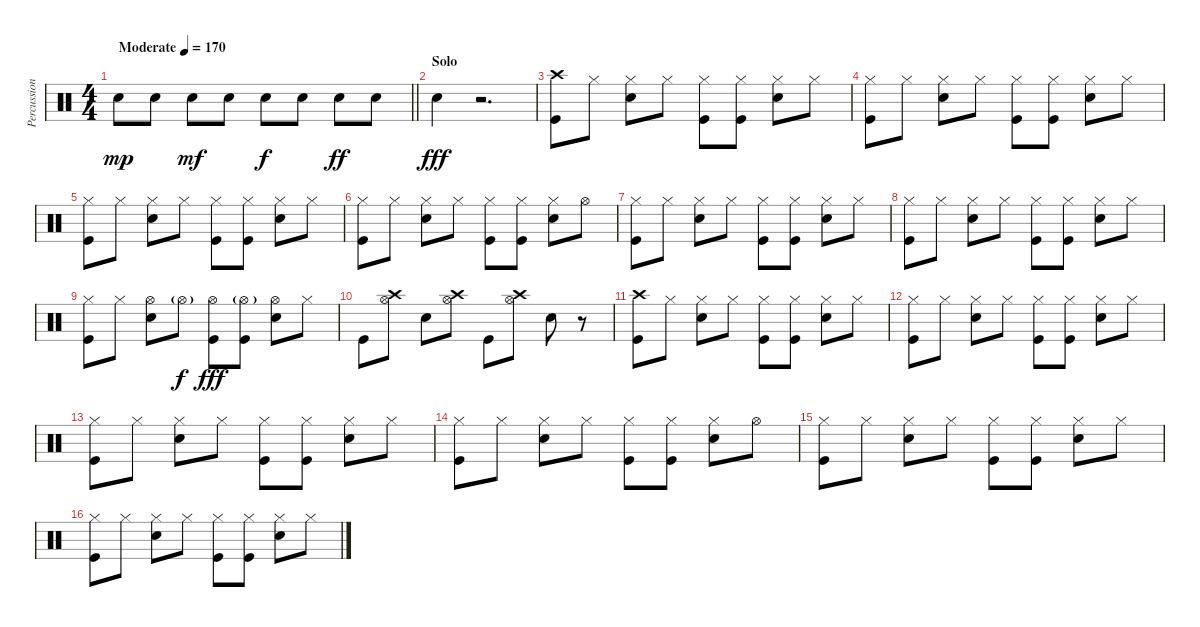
\track ("Percussion" "Percussion") {instrument percussion}
\staff {score}
\articulation defaults
\ts (4 4)
\tempo (170 "Moderate")
\clef neutral
\barLineRight lightlight
\ks c "Snare (hit) 2".8{dy mp} "Snare (hit) 2".8 "Snare (hit) 2".8{dy mf} "Snare (hit) 2".8 "Snare (hit) 2".8{dy f} "Snare (hit) 2".8 "Snare (hit) 2".8{dy ff} "Snare (hit) 2".8
|
\section ("" "Solo")
"Snare (hit) 2".4{dy fff} r.2{d} |
("Crash high (hit)" "Kick (hit)").8 "Hi-Hat (closed)".8 ("Hi-Hat (closed)" "Snare (hit) 2").8 "Hi-Hat (closed)".8 ("Hi-Hat (closed)" "Kick (hit)").8 ("Hi-Hat (closed)" "Kick (hit)").8 ("Hi-Hat (closed)" "Snare (hit) 2").8 "Hi-Hat (closed)".8 |
("Hi-Hat (closed)" "Kick (hit)").8 "Hi-Hat (closed)".8 ("Hi-Hat (closed)" "Snare (hit) 2").8 "Hi-Hat (closed)".8 ("Hi-Hat (closed)" "Kick (hit)").8 ("Hi-Hat (closed)" "Kick (hit)").8 ("Hi-Hat (closed)" "Snare (hit) 2").8 "Hi-Hat (closed)".8 |
("Hi-Hat (closed)" "Kick (hit)").8 "Hi-Hat (closed)".8 ("Hi-Hat (closed)" "Snare (hit) 2").8 "Hi-Hat (closed)".8 ("Hi-Hat (closed)" "Kick (hit)").8 ("Hi-Hat (closed)" "Kick (hit)").8 ("Hi-Hat (closed)" "Snare (hit) 2").8 "Hi-Hat (closed)".8 |
("Hi-Hat (closed)" "Kick (hit)").8 "Hi-Hat (closed)".8 ("Hi-Hat (closed)" "Snare (hit) 2").8 "Hi-Hat (closed)".8 ("Hi-Hat (closed)" "Kick (hit)").8 ("Hi-Hat (closed)" "Kick (hit)").8 ("Hi-Hat (closed)" "Snare (hit) 2").8 "Hi-Hat (open)".8 |
("Hi-Hat (closed)" "Kick (hit)").8 "Hi-Hat (closed)".8 ("Hi-Hat (closed)" "Snare (hit) 2").8 "Hi-Hat (closed)".8 ("Hi-Hat (closed)" "Kick (hit)").8 ("Hi-Hat (closed)" "Kick (hit)").8 ("Hi-Hat (closed)" "Snare (hit) 2").8 "Hi-Hat (closed)".8 |
("Hi-Hat (closed)" "Kick (hit)").8 "Hi-Hat (closed)".8 ("Hi-Hat (closed)" "Snare (hit) 2").8 "Hi-Hat (closed)".8 ("Hi-Hat (closed)" "Kick (hit)").8 ("Hi-Hat (closed)" "Kick (hit)").8 ("Hi-Hat (closed)" "Snare (hit) 2").8 "Hi-Hat (closed)".8 |
("Hi-Hat (closed)" "Kick (hit)").8 "Hi-Hat (closed)".8 ("Hi-Hat (open)" "Snare (hit) 2").8 "Hi-Hat (open)"{g}.8{dy f} ("Hi-Hat (open)" "Kick (hit)").8{dy fff} ("Hi-Hat (open)"{g} "Kick (hit)").8 ("Hi-Hat (open)" "Snare (hit) 2").8 "Hi-Hat (closed)".8 |
"Kick (hit)".8 ("Crash high (hit)" "Hi-Hat (open)").8 "Snare (hit) 2".8 ("Crash high (hit)" "Hi-Hat (open)").8 "Kick (hit)".8 ("Crash high (hit)" "Hi-Hat (open)").8 "Snare (hit) 2".8 r.8 |
("Crash high (hit)" "Kick (hit)").8 "Hi-Hat (closed)".8 ("Hi-Hat (closed)" "Snare (hit) 2").8 "Hi-Hat (closed)".8 ("Hi-Hat (closed)" "Kick (hit)").8 ("Hi-Hat (closed)" "Kick (hit)").8 ("Hi-Hat (closed)" "Snare (hit) 2").8 "Hi-Hat (closed)".8 |
("Hi-Hat (closed)" "Kick (hit)").8 "Hi-Hat (closed)".8 ("Hi-Hat (closed)" "Snare (hit) 2").8 "Hi-Hat (closed)".8 ("Hi-Hat (closed)" "Kick (hit)").8 ("Hi-Hat (closed)" "Kick (hit)").8 ("Hi-Hat (closed)" "Snare (hit) 2").8 "Hi-Hat (closed)".8 |
("Hi-Hat (closed)" "Kick (hit)").8 "Hi-Hat (closed)".8 ("Hi-Hat (closed)" "Snare (hit) 2").8 "Hi-Hat (closed)".8 ("Hi-Hat (closed)" "Kick (hit)").8 ("Hi-Hat (closed)" "Kick (hit)").8 ("Hi-Hat (closed)" "Snare (hit) 2").8 "Hi-Hat (closed)".8 |
("Hi-Hat (closed)" "Kick (hit)").8 "Hi-Hat (closed)".8 ("Hi-Hat (closed)" "Snare (hit) 2").8 "Hi-Hat (closed)".8 ("Hi-Hat (closed)" "Kick (hit)").8 ("Hi-Hat (closed)" "Kick (hit)").8 ("Hi-Hat (closed)" "Snare (hit) 2").8 "Hi-Hat (open)".8 |
("Hi-Hat (closed)" "Kick (hit)").8 "Hi-Hat (closed)".8 ("Hi-Hat (closed)" "Snare (hit) 2").8 "Hi-Hat (closed)".8 ("Hi-Hat (closed)" "Kick (hit)").8 ("Hi-Hat (closed)" "Kick (hit)").8 ("Hi-Hat (closed)" "Snare (hit) 2").8 "Hi-Hat (closed)".8 |
("Hi-Hat (closed)" "Kick (hit)").8 "Hi-Hat (closed)".8 ("Hi-Hat (closed)" "Snare (hit) 2").8 "Hi-Hat (closed)".8 ("Hi-Hat (closed)" "Kick (hit)").8 ("Hi-Hat (closed)" "Kick (hit)").8 ("Hi-Hat (closed)" "Snare (hit) 2").8 "Hi-Hat (closed)".8
